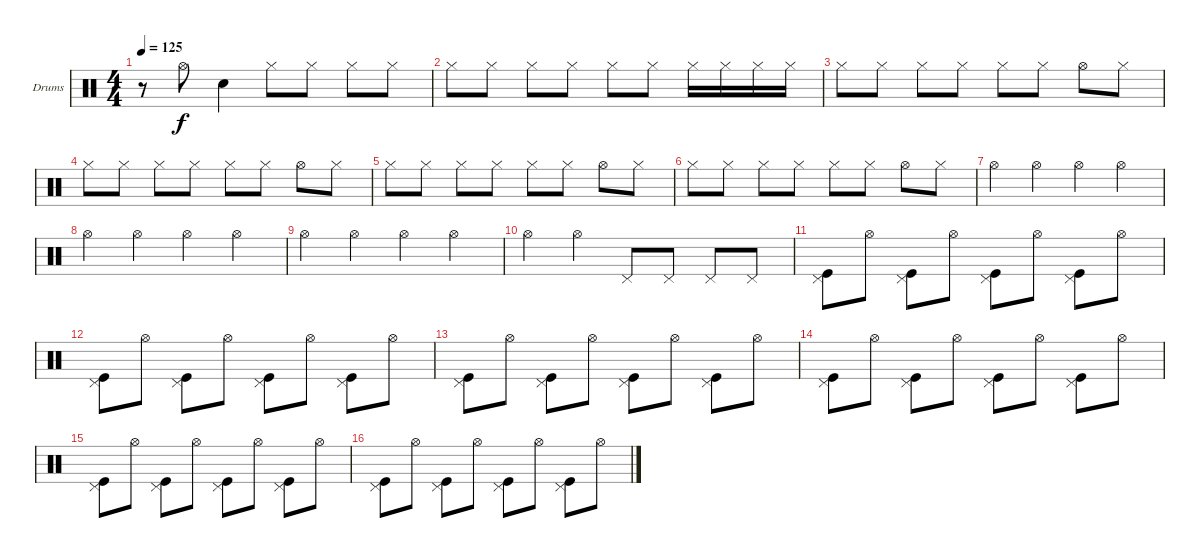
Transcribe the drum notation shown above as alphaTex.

\bracketExtendMode groupsimilarinstruments
\firstSystemTrackNameOrientation horizontal
\otherSystemsTrackNameOrientation horizontal
\track ("Drumkit" "Drums") {instrument percussion}
\staff {score}
\articulation defaults
\ts (4 4)
\tempo 125
\clef neutral
\ks c
r.8{dy f} "Hi-Hat (open)".8 "Snare (hit) 2".4 "Hi-Hat (closed)".8 "Hi-Hat (closed)".8 "Hi-Hat (closed)".8 "Hi-Hat (closed)".8 |
"Hi-Hat (closed)".8 "Hi-Hat (closed)".8 "Hi-Hat (closed)".8 "Hi-Hat (closed)".8 "Hi-Hat (closed)".8 "Hi-Hat (closed)".8 "Hi-Hat (closed)".16 "Hi-Hat (closed)".16 "Hi-Hat (closed)".16 "Hi-Hat (closed)".16 |
"Hi-Hat (closed)".8 "Hi-Hat (closed)".8 "Hi-Hat (closed)".8 "Hi-Hat (closed)".8 "Hi-Hat (closed)".8 "Hi-Hat (closed)".8 "Hi-Hat (open)".8 "Hi-Hat (closed)".8 |
"Hi-Hat (closed)".8 "Hi-Hat (closed)".8 "Hi-Hat (closed)".8 "Hi-Hat (closed)".8 "Hi-Hat (closed)".8 "Hi-Hat (closed)".8 "Hi-Hat (open)".8 "Hi-Hat (closed)".8 |
"Hi-Hat (closed)".8 "Hi-Hat (closed)".8 "Hi-Hat (closed)".8 "Hi-Hat (closed)".8 "Hi-Hat (closed)".8 "Hi-Hat (closed)".8 "Hi-Hat (open)".8 "Hi-Hat (closed)".8 |
"Hi-Hat (closed)".8 "Hi-Hat (closed)".8 "Hi-Hat (closed)".8 "Hi-Hat (closed)".8 "Hi-Hat (closed)".8 "Hi-Hat (closed)".8 "Hi-Hat (open)".8 "Hi-Hat (closed)".8 |
"Hi-Hat (open)".4 "Hi-Hat (open)".4 "Hi-Hat (open)".4 "Hi-Hat (open)".4 |
"Hi-Hat (open)".4 "Hi-Hat (open)".4 "Hi-Hat (open)".4 "Hi-Hat (open)".4 |
"Hi-Hat (open)".4 "Hi-Hat (open)".4 "Hi-Hat (open)".4 "Hi-Hat (open)".4 |
"Hi-Hat (open)".4 "Hi-Hat (open)".4 "Pedal Hi-Hat (hit)".8 "Pedal Hi-Hat (hit)".8 "Pedal Hi-Hat (hit)".8 "Pedal Hi-Hat (hit)".8 |
("Pedal Hi-Hat (hit)" "Kick (hit)").8 "Hi-Hat (open)".8 ("Pedal Hi-Hat (hit)" "Kick (hit)").8 "Hi-Hat (open)".8 ("Pedal Hi-Hat (hit)" "Kick (hit)").8 "Hi-Hat (open)".8 ("Pedal Hi-Hat (hit)" "Kick (hit)").8 "Hi-Hat (open)".8 |
("Pedal Hi-Hat (hit)" "Kick (hit)").8 "Hi-Hat (open)".8 ("Pedal Hi-Hat (hit)" "Kick (hit)").8 "Hi-Hat (open)".8 ("Pedal Hi-Hat (hit)" "Kick (hit)").8 "Hi-Hat (open)".8 ("Pedal Hi-Hat (hit)" "Kick (hit)").8 "Hi-Hat (open)".8 |
("Pedal Hi-Hat (hit)" "Kick (hit)").8 "Hi-Hat (open)".8 ("Pedal Hi-Hat (hit)" "Kick (hit)").8 "Hi-Hat (open)".8 ("Pedal Hi-Hat (hit)" "Kick (hit)").8 "Hi-Hat (open)".8 ("Pedal Hi-Hat (hit)" "Kick (hit)").8 "Hi-Hat (open)".8 |
("Pedal Hi-Hat (hit)" "Kick (hit)").8 "Hi-Hat (open)".8 ("Pedal Hi-Hat (hit)" "Kick (hit)").8 "Hi-Hat (open)".8 ("Pedal Hi-Hat (hit)" "Kick (hit)").8 "Hi-Hat (open)".8 ("Pedal Hi-Hat (hit)" "Kick (hit)").8 "Hi-Hat (open)".8 |
("Pedal Hi-Hat (hit)" "Kick (hit)").8 "Hi-Hat (open)".8 ("Pedal Hi-Hat (hit)" "Kick (hit)").8 "Hi-Hat (open)".8 ("Pedal Hi-Hat (hit)" "Kick (hit)").8 "Hi-Hat (open)".8 ("Pedal Hi-Hat (hit)" "Kick (hit)").8 "Hi-Hat (open)".8 |
("Pedal Hi-Hat (hit)" "Kick (hit)").8 "Hi-Hat (open)".8 ("Pedal Hi-Hat (hit)" "Kick (hit)").8 "Hi-Hat (open)".8 ("Pedal Hi-Hat (hit)" "Kick (hit)").8 "Hi-Hat (open)".8 ("Pedal Hi-Hat (hit)" "Kick (hit)").8 "Hi-Hat (open)".8
